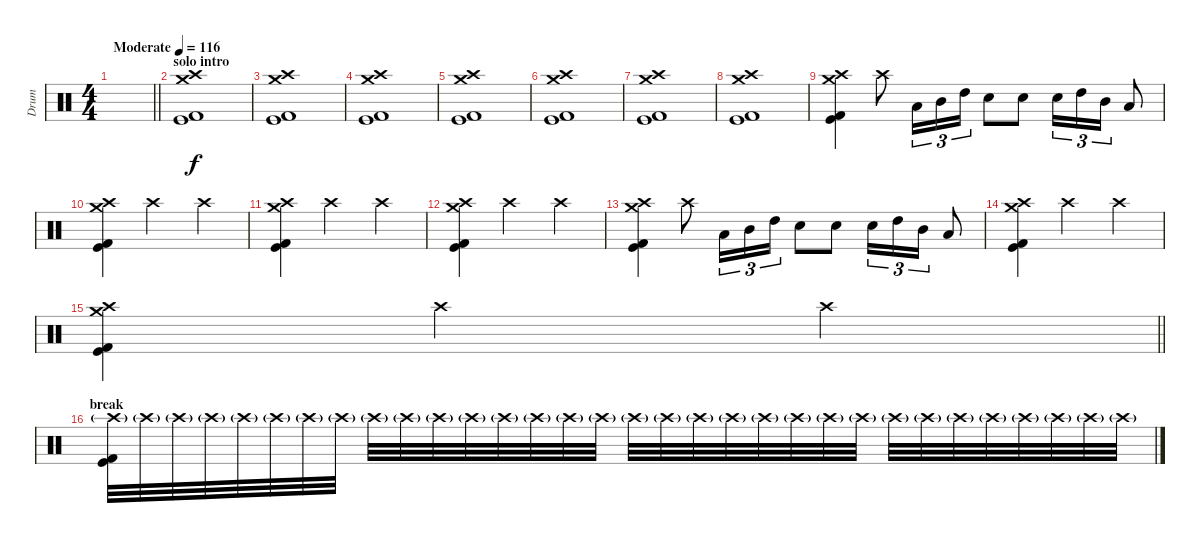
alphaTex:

\track ("Drum" "Drum") {instrument percussion}
\staff {score}
\articulation defaults
\ts (4 4)
\tempo (116 "Moderate")
\clef neutral
\barLineRight lightlight
\ks c
|
\section ("" "solo intro")
("Crash medium (hit)" "Crash high (hit)" "Kick (hit)" "Kick (hit) 2").1 |
("Crash medium (hit)" "Crash high (hit)" "Kick (hit)" "Kick (hit) 2").1 |
("Crash medium (hit)" "Crash high (hit)" "Kick (hit)" "Kick (hit) 2").1 |
("Crash medium (hit)" "Crash high (hit)" "Kick (hit)" "Kick (hit) 2").1 |
("Crash medium (hit)" "Crash high (hit)" "Kick (hit)" "Kick (hit) 2").1 |
("Crash medium (hit)" "Crash high (hit)" "Kick (hit)" "Kick (hit) 2").1 |
("Crash medium (hit)" "Crash high (hit)" "Kick (hit)" "Kick (hit) 2").1 |
("Crash medium (hit)" "Crash high (hit)" "Kick (hit)" "Kick (hit) 2").4 "Crash high (hit)".8 "Low Tom (hit)".16{tu (3 2)} "Mid Tom (hit)".16{tu (3 2)} "High Tom (hit)".16{tu (3 2)} "Electric Snare (hit)".8 "Electric Snare (hit)".8 "Electric Snare (hit)".16{tu (3 2)} "High Tom (hit)".16{tu (3 2)} "Mid Tom (hit)".16{tu (3 2)} "Low Tom (hit)".8 |
("Crash medium (hit)" "Crash high (hit)" "Kick (hit)" "Kick (hit) 2").4 "Crash high (hit)".2 "Crash high (hit)".4 |
("Crash medium (hit)" "Crash high (hit)" "Kick (hit)" "Kick (hit) 2").4 "Crash high (hit)".2 "Crash high (hit)".4 |
("Crash medium (hit)" "Crash high (hit)" "Kick (hit)" "Kick (hit) 2").4 "Crash high (hit)".2 "Crash high (hit)".4 |
("Crash medium (hit)" "Crash high (hit)" "Kick (hit)" "Kick (hit) 2").4 "Crash high (hit)".8 "Low Tom (hit)".16{tu (3 2)} "Mid Tom (hit)".16{tu (3 2)} "High Tom (hit)".16{tu (3 2)} "Electric Snare (hit)".8 "Electric Snare (hit)".8 "Electric Snare (hit)".16{tu (3 2)} "High Tom (hit)".16{tu (3 2)} "Mid Tom (hit)".16{tu (3 2)} "Low Tom (hit)".8 |
("Crash medium (hit)" "Crash high (hit)" "Kick (hit)" "Kick (hit) 2").4 "Crash high (hit)".2 "Crash high (hit)".4 |
\barLineRight lightlight
("Crash medium (hit)" "Crash high (hit)" "Kick (hit)" "Kick (hit) 2").4 "Crash high (hit)".2 "Crash high (hit)".4 |
\section ("" "break")
("Crash high (hit)"{g} "Kick (hit)" "Kick (hit) 2").32 "Crash high (hit)"{g}.32{dy f} "Crash high (hit)"{g}.32 "Crash high (hit)"{g}.32 "Crash high (hit)"{g}.32 "Crash high (hit)"{g}.32 "Crash high (hit)"{g}.32 "Crash high (hit)"{g}.32 "Crash high (hit)"{g}.32 "Crash high (hit)"{g}.32 "Crash high (hit)"{g}.32 "Crash high (hit)"{g}.32 "Crash high (hit)"{g}.32 "Crash high (hit)"{g}.32 "Crash high (hit)"{g}.32 "Crash high (hit)"{g}.32 "Crash high (hit)"{g}.32 "Crash high (hit)"{g}.32 "Crash high (hit)"{g}.32 "Crash high (hit)"{g}.32 "Crash high (hit)"{g}.32 "Crash high (hit)"{g}.32 "Crash high (hit)"{g}.32 "Crash high (hit)"{g}.32 "Crash high (hit)"{g}.32 "Crash high (hit)"{g}.32 "Crash high (hit)"{g}.32 "Crash high (hit)"{g}.32 "Crash high (hit)"{g}.32 "Crash high (hit)"{g}.32 "Crash high (hit)"{g}.32 "Crash high (hit)"{g}.32
